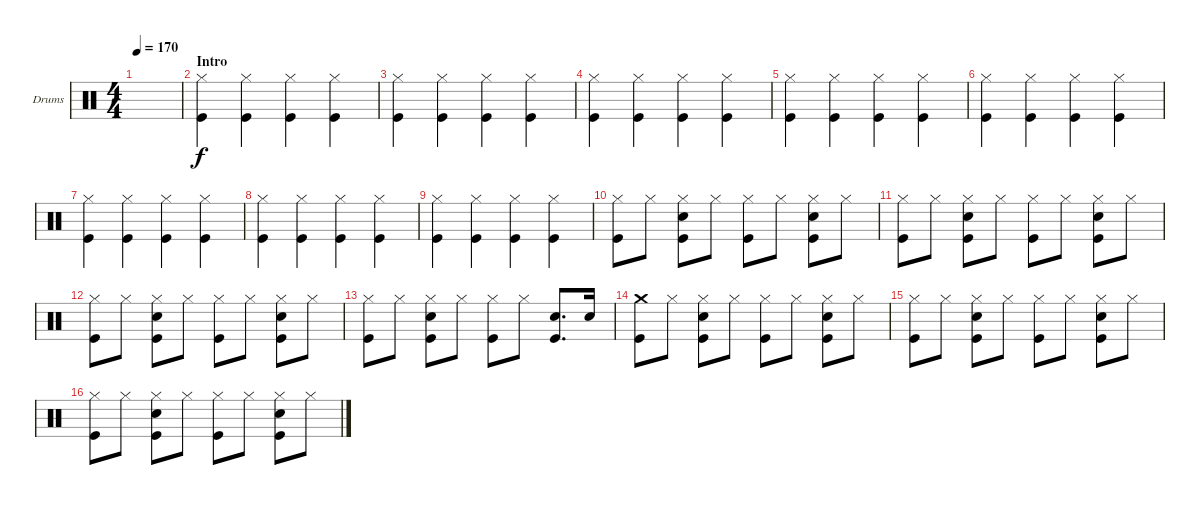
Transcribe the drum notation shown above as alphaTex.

\bracketExtendMode groupsimilarinstruments
\firstSystemTrackNameOrientation horizontal
\otherSystemsTrackNameOrientation horizontal
\track ("Drumkit" "Drums") {instrument percussion}
\staff {score}
\articulation defaults
\ts (4 4)
\beaming (8 2 2 2 2)
\tempo 170
\clef neutral
\ks c
|
\section ("" "Intro")
("Hi-Hat (closed)" "Kick (hit)").4 ("Hi-Hat (closed)" "Kick (hit)").4 ("Hi-Hat (closed)" "Kick (hit)").4 ("Hi-Hat (closed)" "Kick (hit)").4 |
("Hi-Hat (closed)" "Kick (hit)").4 ("Hi-Hat (closed)" "Kick (hit)").4 ("Hi-Hat (closed)" "Kick (hit)").4 ("Hi-Hat (closed)" "Kick (hit)").4 |
("Hi-Hat (closed)" "Kick (hit)").4 ("Hi-Hat (closed)" "Kick (hit)").4 ("Hi-Hat (closed)" "Kick (hit)").4 ("Hi-Hat (closed)" "Kick (hit)").4 |
("Hi-Hat (closed)" "Kick (hit)").4 ("Hi-Hat (closed)" "Kick (hit)").4 ("Hi-Hat (closed)" "Kick (hit)").4 ("Hi-Hat (closed)" "Kick (hit)").4 |
("Hi-Hat (closed)" "Kick (hit)").4 ("Hi-Hat (closed)" "Kick (hit)").4 ("Hi-Hat (closed)" "Kick (hit)").4 ("Hi-Hat (closed)" "Kick (hit)").4 |
("Hi-Hat (closed)" "Kick (hit)").4 ("Hi-Hat (closed)" "Kick (hit)").4 ("Hi-Hat (closed)" "Kick (hit)").4 ("Hi-Hat (closed)" "Kick (hit)").4 |
("Hi-Hat (closed)" "Kick (hit)").4 ("Hi-Hat (closed)" "Kick (hit)").4 ("Hi-Hat (closed)" "Kick (hit)").4 ("Hi-Hat (closed)" "Kick (hit)").4 |
("Hi-Hat (closed)" "Kick (hit)").4 ("Hi-Hat (closed)" "Kick (hit)").4 ("Hi-Hat (closed)" "Kick (hit)").4 ("Hi-Hat (closed)" "Kick (hit)").4 |
("Hi-Hat (closed)" "Kick (hit)").8 "Hi-Hat (closed)".8 ("Hi-Hat (closed)" "Snare (hit) 2" "Kick (hit)").8 "Hi-Hat (closed)".8 ("Hi-Hat (closed)" "Kick (hit)").8 "Hi-Hat (closed)".8 ("Hi-Hat (closed)" "Snare (hit) 2" "Kick (hit)").8 "Hi-Hat (closed)".8 |
("Hi-Hat (closed)" "Kick (hit)").8 "Hi-Hat (closed)".8 ("Hi-Hat (closed)" "Snare (hit) 2" "Kick (hit)").8 "Hi-Hat (closed)".8 ("Hi-Hat (closed)" "Kick (hit)").8 "Hi-Hat (closed)".8 ("Hi-Hat (closed)" "Snare (hit) 2" "Kick (hit)").8 "Hi-Hat (closed)".8 |
("Hi-Hat (closed)" "Kick (hit)").8 "Hi-Hat (closed)".8 ("Hi-Hat (closed)" "Snare (hit) 2" "Kick (hit)").8 "Hi-Hat (closed)".8 ("Hi-Hat (closed)" "Kick (hit)").8 "Hi-Hat (closed)".8 ("Hi-Hat (closed)" "Snare (hit) 2" "Kick (hit)").8 "Hi-Hat (closed)".8 |
("Hi-Hat (closed)" "Kick (hit)").8 "Hi-Hat (closed)".8 ("Hi-Hat (closed)" "Snare (hit) 2" "Kick (hit)").8 "Hi-Hat (closed)".8 ("Hi-Hat (closed)" "Kick (hit)").8 "Hi-Hat (closed)".8 ("Snare (hit) 2" "Kick (hit)").8{d} "Snare (hit) 2".16 |
("Crash medium (hit)" "Kick (hit)").8 "Hi-Hat (closed)".8 ("Hi-Hat (closed)" "Snare (hit) 2" "Kick (hit)").8 "Hi-Hat (closed)".8 ("Hi-Hat (closed)" "Kick (hit)").8 "Hi-Hat (closed)".8 ("Hi-Hat (closed)" "Snare (hit) 2" "Kick (hit)").8 "Hi-Hat (closed)".8 |
("Hi-Hat (closed)" "Kick (hit)").8 "Hi-Hat (closed)".8 ("Hi-Hat (closed)" "Snare (hit) 2" "Kick (hit)").8 "Hi-Hat (closed)".8 ("Hi-Hat (closed)" "Kick (hit)").8 "Hi-Hat (closed)".8 ("Hi-Hat (closed)" "Snare (hit) 2" "Kick (hit)").8 "Hi-Hat (closed)".8 |
("Hi-Hat (closed)" "Kick (hit)").8 "Hi-Hat (closed)".8 ("Hi-Hat (closed)" "Snare (hit) 2" "Kick (hit)").8 "Hi-Hat (closed)".8 ("Hi-Hat (closed)" "Kick (hit)").8 "Hi-Hat (closed)".8 ("Hi-Hat (closed)" "Snare (hit) 2" "Kick (hit)").8 "Hi-Hat (closed)".8
